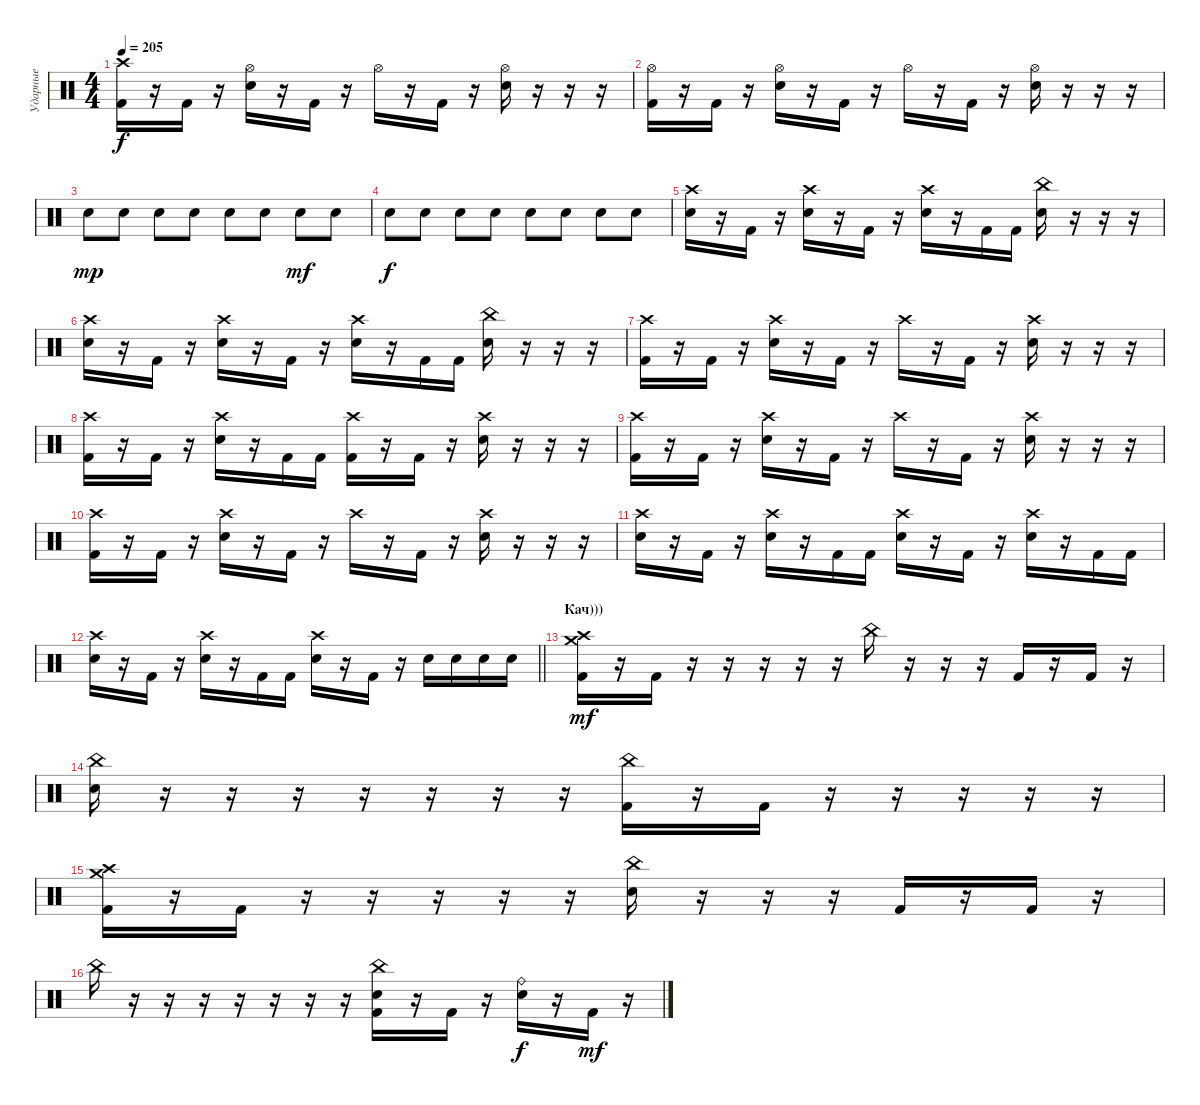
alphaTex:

\track ("Ударные" "Ударные") {instrument percussion}
\staff {score}
\articulation defaults
\ts (4 4)
\tempo 205
\clef neutral
\ks c
("Crash high (hit)" "Kick (hit) 2").16{dy f} r.16 "Kick (hit) 2".16 r.16 ("Hi-Hat (open)" "Electric Snare (hit)").16 r.16 "Kick (hit) 2".16 r.16 "Hi-Hat (open)".16 r.16 "Kick (hit) 2".16 r.16 ("Hi-Hat (open)" "Electric Snare (hit)").16 r.16 r.16 r.16 |
("Hi-Hat (open)" "Kick (hit) 2").16 r.16 "Kick (hit) 2".16 r.16 ("Hi-Hat (open)" "Electric Snare (hit)").16 r.16 "Kick (hit) 2".16 r.16 "Hi-Hat (open)".16 r.16 "Kick (hit) 2".16 r.16 ("Hi-Hat (open)" "Electric Snare (hit)").16 r.16 r.16 r.16 |
"Electric Snare (hit)".8{dy mp} "Electric Snare (hit)".8 "Electric Snare (hit)".8 "Electric Snare (hit)".8 "Electric Snare (hit)".8 "Electric Snare (hit)".8 "Electric Snare (hit)".8{dy mf} "Electric Snare (hit)".8 |
"Electric Snare (hit)".8{dy f} "Electric Snare (hit)".8 "Electric Snare (hit)".8 "Electric Snare (hit)".8 "Electric Snare (hit)".8 "Electric Snare (hit)".8 "Electric Snare (hit)".8 "Electric Snare (hit)".8 |
("Crash high (hit)" "Electric Snare (hit)").16 r.16 "Kick (hit) 2".16 r.16 ("Crash high (hit)" "Electric Snare (hit)").16 r.16 "Kick (hit) 2".16 r.16 ("Crash high (hit)" "Electric Snare (hit)").16 r.16 "Kick (hit) 2".16 "Kick (hit) 2".16 ("China (hit)" "Electric Snare (hit)").16 r.16 r.16 r.16 |
("Crash high (hit)" "Electric Snare (hit)").16 r.16 "Kick (hit) 2".16 r.16 ("Crash high (hit)" "Electric Snare (hit)").16 r.16 "Kick (hit) 2".16 r.16 ("Crash high (hit)" "Electric Snare (hit)").16 r.16 "Kick (hit) 2".16 "Kick (hit) 2".16 ("China (hit)" "Electric Snare (hit)").16 r.16 r.16 r.16 |
("Crash high (hit)" "Kick (hit) 2").16 r.16 "Kick (hit) 2".16 r.16 ("Crash high (hit)" "Electric Snare (hit)").16 r.16 "Kick (hit) 2".16 r.16 "Crash high (hit)".16 r.16 "Kick (hit) 2".16 r.16 ("Crash high (hit)" "Electric Snare (hit)").16 r.16 r.16 r.16 |
("Crash high (hit)" "Kick (hit) 2").16 r.16 "Kick (hit) 2".16 r.16 ("Crash high (hit)" "Electric Snare (hit)").16 r.16 "Kick (hit) 2".16 "Kick (hit) 2".16 ("Crash high (hit)" "Kick (hit) 2").16 r.16 "Kick (hit) 2".16 r.16 ("Crash high (hit)" "Electric Snare (hit)").16 r.16 r.16 r.16 |
("Crash high (hit)" "Kick (hit) 2").16 r.16 "Kick (hit) 2".16 r.16 ("Crash high (hit)" "Electric Snare (hit)").16 r.16 "Kick (hit) 2".16 r.16 "Crash high (hit)".16 r.16 "Kick (hit) 2".16 r.16 ("Crash high (hit)" "Electric Snare (hit)").16 r.16 r.16 r.16 |
("Crash high (hit)" "Kick (hit) 2").16 r.16 "Kick (hit) 2".16 r.16 ("Crash high (hit)" "Electric Snare (hit)").16 r.16 "Kick (hit) 2".16 r.16 "Crash high (hit)".16 r.16 "Kick (hit) 2".16 r.16 ("Crash high (hit)" "Electric Snare (hit)").16 r.16 r.16 r.16 |
("Crash high (hit)" "Electric Snare (hit)").16 r.16 "Kick (hit) 2".16 r.16 ("Crash high (hit)" "Electric Snare (hit)").16 r.16 "Kick (hit) 2".16 "Kick (hit) 2".16 ("Crash high (hit)" "Electric Snare (hit)").16 r.16 "Kick (hit) 2".16 r.16 ("Crash high (hit)" "Electric Snare (hit)").16 r.16 "Kick (hit) 2".16 "Kick (hit) 2".16 |
\barLineRight lightlight
("Crash high (hit)" "Electric Snare (hit)").16 r.16 "Kick (hit) 2".16 r.16 ("Crash high (hit)" "Electric Snare (hit)").16 r.16 "Kick (hit) 2".16 "Kick (hit) 2".16 ("Crash high (hit)" "Electric Snare (hit)").16 r.16 "Kick (hit) 2".16 r.16 "Electric Snare (hit)".16 "Electric Snare (hit)".16 "Electric Snare (hit)".16 "Electric Snare (hit)".16 |
\section ("" "Кач)))")
("Crash high (hit)" "Crash medium (hit)" "Kick (hit) 2").16{dy mf} r.16 "Kick (hit) 2".16 r.16 r.16 r.16 r.16 r.16 "China (hit)".16 r.16 r.16 r.16 "Kick (hit) 2".16 r.16 "Kick (hit) 2".16 r.16 |
("China (hit)" "Electric Snare (hit)").16 r.16 r.16 r.16 r.16 r.16 r.16 r.16 ("China (hit)" "Kick (hit) 2").16 r.16 "Kick (hit) 2".16 r.16 r.16 r.16 r.16 r.16 |
("Crash high (hit)" "Crash medium (hit)" "Kick (hit) 2").16 r.16 "Kick (hit) 2".16 r.16 r.16 r.16 r.16 r.16 ("China (hit)" "Electric Snare (hit)").16 r.16 r.16 r.16 "Kick (hit) 2".16 r.16 "Kick (hit) 2".16 r.16 |
"China (hit)".16 r.16 r.16 r.16 r.16 r.16 r.16 r.16 ("China (hit)" "Electric Snare (hit)" "Kick (hit) 2").16 r.16 "Kick (hit) 2".16 r.16 ("Ride (bell)" "Electric Snare (hit)").16{dy f} r.16 "Kick (hit) 2".16{dy mf} r.16
